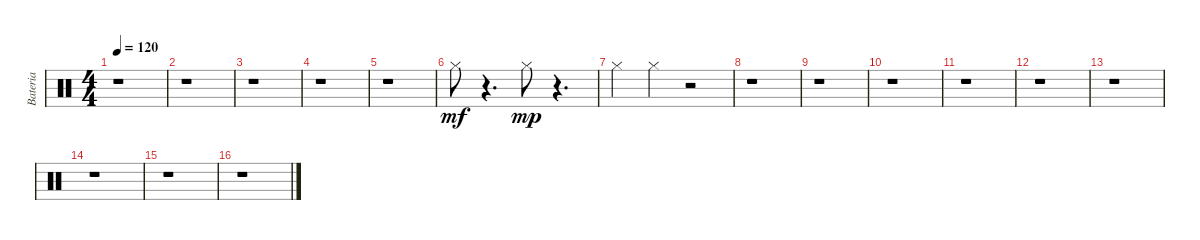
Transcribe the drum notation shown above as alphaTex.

\track ("Bateria" "Bateria") {instrument percussion}
\staff {score}
\articulation defaults
\ts (4 4)
\tempo 120
\clef neutral
\ks c
r.1{dy mf} |
r.1 |
r.1 |
r.1 |
r.1 |
"Hi-Hat (closed)".8 r.4{d} "Hi-Hat (closed)".8{dy mp} r.4{d} |
"Hi-Hat (closed)".4 "Hi-Hat (closed)".4 r.2 |
r.1 |
r.1 |
r.1 |
r.1 |
r.1 |
r.1 |
r.1 |
r.1 |
r.1
